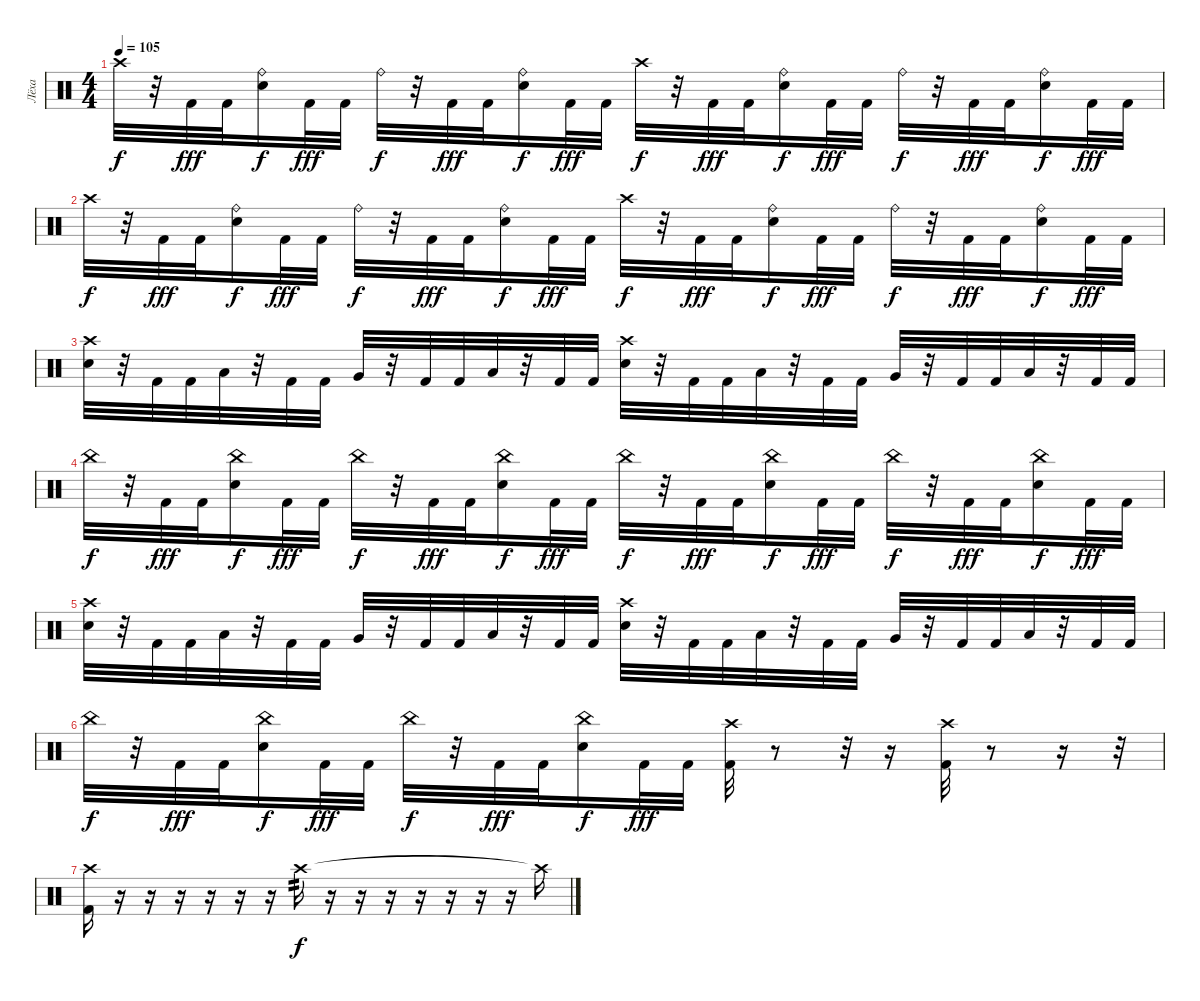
\track ("Лёха" "Лёха") {solo instrument percussion}
\staff {score}
\articulation defaults
\ts (4 4)
\tempo 105
\clef neutral
\ks c "Crash high (hit)".32{dy f}
r.32 "Kick (hit) 2".32{dy fff} "Kick (hit) 2".32 ("Ride (bell)" "Electric Snare (hit)").16{dy f} "Kick (hit) 2".32{dy fff} "Kick (hit) 2".32 "Ride (bell)".32{dy f} r.32 "Kick (hit) 2".32{dy fff} "Kick (hit) 2".32 ("Ride (bell)" "Electric Snare (hit)").16{dy f} "Kick (hit) 2".32{dy fff} "Kick (hit) 2".32 "Crash high (hit)".32{dy f} r.32 "Kick (hit) 2".32{dy fff} "Kick (hit) 2".32 ("Ride (bell)" "Electric Snare (hit)").16{dy f} "Kick (hit) 2".32{dy fff} "Kick (hit) 2".32 "Ride (bell)".32{dy f} r.32 "Kick (hit) 2".32{dy fff} "Kick (hit) 2".32 ("Ride (bell)" "Electric Snare (hit)").16{dy f} "Kick (hit) 2".32{dy fff} "Kick (hit) 2".32 |
"Crash high (hit)".32{dy f} r.32 "Kick (hit) 2".32{dy fff} "Kick (hit) 2".32 ("Ride (bell)" "Electric Snare (hit)").16{dy f} "Kick (hit) 2".32{dy fff} "Kick (hit) 2".32 "Ride (bell)".32{dy f} r.32 "Kick (hit) 2".32{dy fff} "Kick (hit) 2".32 ("Ride (bell)" "Electric Snare (hit)").16{dy f} "Kick (hit) 2".32{dy fff} "Kick (hit) 2".32 "Crash high (hit)".32{dy f} r.32 "Kick (hit) 2".32{dy fff} "Kick (hit) 2".32 ("Ride (bell)" "Electric Snare (hit)").16{dy f} "Kick (hit) 2".32{dy fff} "Kick (hit) 2".32 "Ride (bell)".32{dy f} r.32 "Kick (hit) 2".32{dy fff} "Kick (hit) 2".32 ("Ride (bell)" "Electric Snare (hit)").16{dy f} "Kick (hit) 2".32{dy fff} "Kick (hit) 2".32 |
("Crash high (hit)" "Electric Snare (hit)").32 r.32 "Kick (hit) 2".32 "Kick (hit) 2".32 "Low Tom (hit)".32 r.32 "Kick (hit) 2".32 "Kick (hit) 2".32 "Very Low Tom (hit)".32 r.32 "Kick (hit) 2".32 "Kick (hit) 2".32 "Low Floor Tom (hit)".32 r.32 "Kick (hit) 2".32 "Kick (hit) 2".32 ("Crash high (hit)" "Electric Snare (hit)").32 r.32 "Kick (hit) 2".32 "Kick (hit) 2".32 "Low Tom (hit)".32 r.32 "Kick (hit) 2".32 "Kick (hit) 2".32 "Very Low Tom (hit)".32 r.32 "Kick (hit) 2".32 "Kick (hit) 2".32 "Low Floor Tom (hit)".32 r.32 "Kick (hit) 2".32 "Kick (hit) 2".32 |
"China (hit)".32{dy f} r.32 "Kick (hit) 2".32{dy fff} "Kick (hit) 2".32 ("China (hit)" "Electric Snare (hit)").16{dy f} "Kick (hit) 2".32{dy fff} "Kick (hit) 2".32 "China (hit)".32{dy f} r.32 "Kick (hit) 2".32{dy fff} "Kick (hit) 2".32 ("China (hit)" "Electric Snare (hit)").16{dy f} "Kick (hit) 2".32{dy fff} "Kick (hit) 2".32 "China (hit)".32{dy f} r.32 "Kick (hit) 2".32{dy fff} "Kick (hit) 2".32 ("China (hit)" "Electric Snare (hit)").16{dy f} "Kick (hit) 2".32{dy fff} "Kick (hit) 2".32 "China (hit)".32{dy f} r.32 "Kick (hit) 2".32{dy fff} "Kick (hit) 2".32 ("China (hit)" "Electric Snare (hit)").16{dy f} "Kick (hit) 2".32{dy fff} "Kick (hit) 2".32 |
("Crash high (hit)" "Electric Snare (hit)").32 r.32 "Kick (hit) 2".32 "Kick (hit) 2".32 "Low Tom (hit)".32 r.32 "Kick (hit) 2".32 "Kick (hit) 2".32 "Very Low Tom (hit)".32 r.32 "Kick (hit) 2".32 "Kick (hit) 2".32 "Low Floor Tom (hit)".32 r.32 "Kick (hit) 2".32 "Kick (hit) 2".32 ("Crash high (hit)" "Electric Snare (hit)").32 r.32 "Kick (hit) 2".32 "Kick (hit) 2".32 "Low Tom (hit)".32 r.32 "Kick (hit) 2".32 "Kick (hit) 2".32 "Very Low Tom (hit)".32 r.32 "Kick (hit) 2".32 "Kick (hit) 2".32 "Low Floor Tom (hit)".32 r.32 "Kick (hit) 2".32 "Kick (hit) 2".32 |
"China (hit)".32{dy f} r.32 "Kick (hit) 2".32{dy fff} "Kick (hit) 2".32 ("China (hit)" "Electric Snare (hit)").16{dy f} "Kick (hit) 2".32{dy fff} "Kick (hit) 2".32 "China (hit)".32{dy f} r.32 "Kick (hit) 2".32{dy fff} "Kick (hit) 2".32 ("China (hit)" "Electric Snare (hit)").16{dy f} "Kick (hit) 2".32{dy fff} "Kick (hit) 2".32 ("Crash high (hit)" "Kick (hit) 2").32 r.8 r.32 r.16 ("Crash high (hit)" "Kick (hit) 2").32 r.8 r.16 r.32 |
("Crash high (hit)" "Kick (hit) 2").16 r.16 r.16 r.16 r.16 r.16 r.16{volume 5} "Crash high (hit)".16{tp 2 dy f volume 16} r.16 r.16 r.16 r.16 r.16 r.16 r.16 "Crash high (hit)"{t}.16
